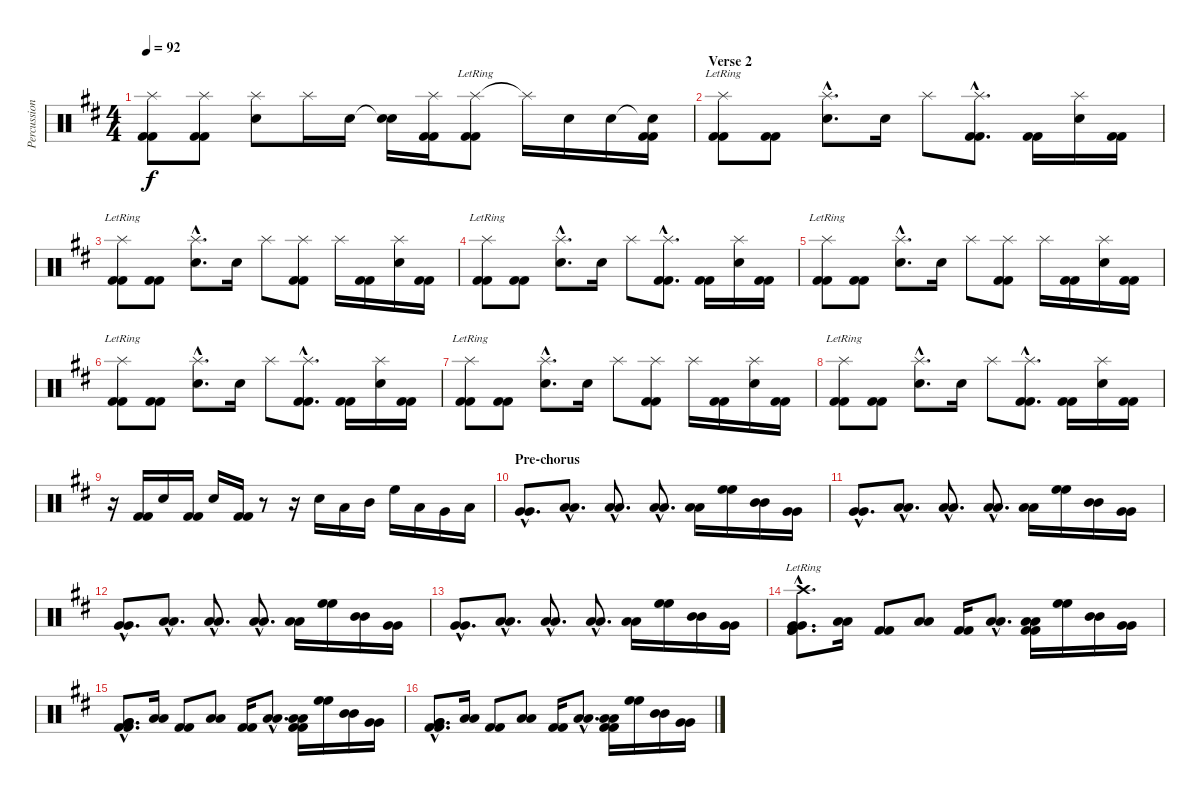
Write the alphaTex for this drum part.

\track ("Percussion" "Percussion") {instrument percussion}
\staff {score}
\articulation defaults
\ts (4 4)
\tempo 92
\clef neutral
\ks d
("Splash (hit)" "Kick (hit) 2" "Kick (hit) 2").8{dy f} ("Splash (hit)" "Kick (hit) 2" "Kick (hit) 2").8 ("Splash (hit)" "Electric Snare (hit)").8 "Splash (hit)".16 "Electric Snare (hit)".16 ("Snare (hit)"{t} "Electric Snare (hit)").16 ("Splash (hit)" "Kick (hit) 2" "Kick (hit) 2").16 ("Splash (hit)"{lr} "Kick (hit) 2" "Kick (hit) 2").8 "Splash (hit)"{t}.16 "Electric Snare (hit)".16 "Electric Snare (hit)".16 ("Electric Snare (hit)"{t} "Kick (hit) 2" "Kick (hit) 2").16 |
\section ("" "Verse 2")
("Splash (hit)"{lr} "Kick (hit) 2" "Kick (hit) 2").8 ("Kick (hit) 2" "Kick (hit) 2").8 ("Splash (hit)"{hac} "Electric Snare (hit)"{hac}).8{d} "Electric Snare (hit)".16 "Splash (hit)".8 ("Splash (hit)"{hac} "Kick (hit) 2"{hac} "Kick (hit) 2"{hac}).8{d} ("Kick (hit) 2" "Kick (hit) 2").16 ("Splash (hit)" "Electric Snare (hit)").16 ("Kick (hit) 2" "Kick (hit) 2").16 |
("Splash (hit)"{lr} "Kick (hit) 2" "Kick (hit) 2").8 ("Kick (hit) 2" "Kick (hit) 2").8 ("Splash (hit)"{hac} "Electric Snare (hit)"{hac}).8{d} "Electric Snare (hit)".16 "Splash (hit)".8 ("Splash (hit)" "Kick (hit) 2" "Kick (hit) 2").8 "Splash (hit)".16 ("Kick (hit) 2" "Kick (hit) 2").16 ("Splash (hit)" "Electric Snare (hit)").16 ("Kick (hit) 2" "Kick (hit) 2").16 |
("Splash (hit)"{lr} "Kick (hit) 2" "Kick (hit) 2").8 ("Kick (hit) 2" "Kick (hit) 2").8 ("Splash (hit)"{hac} "Electric Snare (hit)"{hac}).8{d} "Electric Snare (hit)".16 "Splash (hit)".8 ("Splash (hit)"{hac} "Kick (hit) 2"{hac} "Kick (hit) 2"{hac}).8{d} ("Kick (hit) 2" "Kick (hit) 2").16 ("Splash (hit)" "Electric Snare (hit)").16 ("Kick (hit) 2" "Kick (hit) 2").16 |
("Splash (hit)"{lr} "Kick (hit) 2" "Kick (hit) 2").8 ("Kick (hit) 2" "Kick (hit) 2").8 ("Splash (hit)"{hac} "Electric Snare (hit)"{hac}).8{d} "Electric Snare (hit)".16 "Splash (hit)".8 ("Splash (hit)" "Kick (hit) 2" "Kick (hit) 2").8 "Splash (hit)".16 ("Kick (hit) 2" "Kick (hit) 2").16 ("Splash (hit)" "Electric Snare (hit)").16 ("Kick (hit) 2" "Kick (hit) 2").16 |
("Splash (hit)"{lr} "Kick (hit) 2" "Kick (hit) 2").8 ("Kick (hit) 2" "Kick (hit) 2").8 ("Splash (hit)"{hac} "Electric Snare (hit)"{hac}).8{d} "Electric Snare (hit)".16 "Splash (hit)".8 ("Splash (hit)"{hac} "Kick (hit) 2"{hac} "Kick (hit) 2"{hac}).8{d} ("Kick (hit) 2" "Kick (hit) 2").16 ("Splash (hit)" "Electric Snare (hit)").16 ("Kick (hit) 2" "Kick (hit) 2").16 |
("Splash (hit)"{lr} "Kick (hit) 2" "Kick (hit) 2").8 ("Kick (hit) 2" "Kick (hit) 2").8 ("Splash (hit)"{hac} "Electric Snare (hit)"{hac}).8{d} "Electric Snare (hit)".16 "Splash (hit)".8 ("Splash (hit)" "Kick (hit) 2" "Kick (hit) 2").8 "Splash (hit)".16 ("Kick (hit) 2" "Kick (hit) 2").16 ("Splash (hit)" "Electric Snare (hit)").16 ("Kick (hit) 2" "Kick (hit) 2").16 |
("Splash (hit)"{lr} "Kick (hit) 2" "Kick (hit) 2").8 ("Kick (hit) 2" "Kick (hit) 2").8 ("Splash (hit)"{hac} "Electric Snare (hit)"{hac}).8{d} "Electric Snare (hit)".16 "Splash (hit)".8 ("Splash (hit)"{hac} "Kick (hit) 2"{hac} "Kick (hit) 2"{hac}).8{d} ("Kick (hit) 2" "Kick (hit) 2").16 ("Splash (hit)" "Electric Snare (hit)").16 ("Kick (hit) 2" "Kick (hit) 2").16 |
r.16 ("Kick (hit) 2" "Kick (hit) 2").16 "Electric Snare (hit)".16 ("Kick (hit) 2" "Kick (hit) 2").16 "Electric Snare (hit)".16 ("Kick (hit) 2" "Kick (hit) 2").16 r.8 r.16 "Electric Snare (hit)".16 "Low Tom (hit)".16 "Mid Tom (hit)".16 "High Floor Tom (hit)".16 "Low Tom (hit)".16 "Very Low Tom (hit)".16 "Low Floor Tom (hit)".16 |
\section ("" "Pre-chorus")
("Very Low Tom (hit)"{hac} "Very Low Tom (hit)"{hac}).8{d} ("Low Tom (hit)"{hac} "Low Tom (hit)"{hac}).8{d} ("Low Tom (hit)"{hac} "Low Tom (hit)"{hac}).8{d} ("Low Tom (hit)"{hac} "Low Tom (hit)"{hac}).8{d} ("Low Tom (hit)" "Low Tom (hit)").16 ("High Floor Tom (hit)" "High Floor Tom (hit)").16 ("Mid Tom (hit)" "Mid Tom (hit)").16 ("Very Low Tom (hit)" "Very Low Tom (hit)").16 |
("Very Low Tom (hit)"{hac} "Very Low Tom (hit)"{hac}).8{d} ("Low Tom (hit)"{hac} "Low Tom (hit)"{hac}).8{d} ("Low Tom (hit)"{hac} "Low Tom (hit)"{hac}).8{d} ("Low Tom (hit)"{hac} "Low Tom (hit)"{hac}).8{d} ("Low Tom (hit)" "Low Tom (hit)").16 ("High Floor Tom (hit)" "High Floor Tom (hit)").16 ("Mid Tom (hit)" "Mid Tom (hit)").16 ("Very Low Tom (hit)" "Very Low Tom (hit)").16 |
("Very Low Tom (hit)"{hac} "Very Low Tom (hit)"{hac}).8{d} ("Low Tom (hit)"{hac} "Low Tom (hit)"{hac}).8{d} ("Low Tom (hit)"{hac} "Low Tom (hit)"{hac}).8{d} ("Low Tom (hit)"{hac} "Low Tom (hit)"{hac}).8{d} ("Low Tom (hit)" "Low Tom (hit)").16 ("High Floor Tom (hit)" "High Floor Tom (hit)").16 ("Mid Tom (hit)" "Mid Tom (hit)").16 ("Very Low Tom (hit)" "Very Low Tom (hit)").16 |
("Very Low Tom (hit)"{hac} "Very Low Tom (hit)"{hac}).8{d} ("Low Tom (hit)"{hac} "Low Tom (hit)"{hac}).8{d} ("Low Tom (hit)"{hac} "Low Tom (hit)"{hac}).8{d} ("Low Tom (hit)"{hac} "Low Tom (hit)"{hac}).8{d} ("Low Tom (hit)" "Low Tom (hit)").16 ("High Floor Tom (hit)" "High Floor Tom (hit)").16 ("Mid Tom (hit)" "Mid Tom (hit)").16 ("Very Low Tom (hit)" "Very Low Tom (hit)").16 |
("Kick (hit) 2"{hac} "Crash high (hit)"{hac lr} "Very Low Tom (hit)"{hac} "Very Low Tom (hit)"{hac} "Kick (hit) 2"{hac}).8{d} ("Low Tom (hit)" "Low Tom (hit)").16 ("Kick (hit) 2" "Kick (hit) 2").8 ("Low Tom (hit)" "Low Tom (hit)").8 ("Kick (hit) 2" "Kick (hit) 2").16 ("Low Tom (hit)"{hac} "Low Tom (hit)"{hac}).8{d} ("Kick (hit) 2" "Low Tom (hit)" "Low Tom (hit)" "Kick (hit) 2").16 ("High Floor Tom (hit)" "High Floor Tom (hit)").16 ("Mid Tom (hit)" "Mid Tom (hit)").16 ("Very Low Tom (hit)" "Very Low Tom (hit)").16 |
("Kick (hit) 2"{hac} "Very Low Tom (hit)"{hac} "Very Low Tom (hit)"{hac} "Kick (hit) 2"{hac}).8{d} ("Low Tom (hit)" "Low Tom (hit)").16 ("Kick (hit) 2" "Kick (hit) 2").8 ("Low Tom (hit)" "Low Tom (hit)").8 ("Kick (hit) 2" "Kick (hit) 2").16 ("Low Tom (hit)"{hac} "Low Tom (hit)"{hac}).8{d} ("Kick (hit) 2" "Low Tom (hit)" "Low Tom (hit)" "Kick (hit) 2").16 ("High Floor Tom (hit)" "High Floor Tom (hit)").16 ("Mid Tom (hit)" "Mid Tom (hit)").16 ("Very Low Tom (hit)" "Very Low Tom (hit)").16 |
("Kick (hit) 2"{hac} "Very Low Tom (hit)"{hac} "Very Low Tom (hit)"{hac} "Kick (hit) 2"{hac}).8{d} ("Low Tom (hit)" "Low Tom (hit)").16 ("Kick (hit) 2" "Kick (hit) 2").8 ("Low Tom (hit)" "Low Tom (hit)").8 ("Kick (hit) 2" "Kick (hit) 2").16 ("Low Tom (hit)"{hac} "Low Tom (hit)"{hac}).8{d} ("Kick (hit) 2" "Low Tom (hit)" "Low Tom (hit)" "Kick (hit) 2").16 ("High Floor Tom (hit)" "High Floor Tom (hit)").16 ("Mid Tom (hit)" "Mid Tom (hit)").16 ("Very Low Tom (hit)" "Very Low Tom (hit)").16
